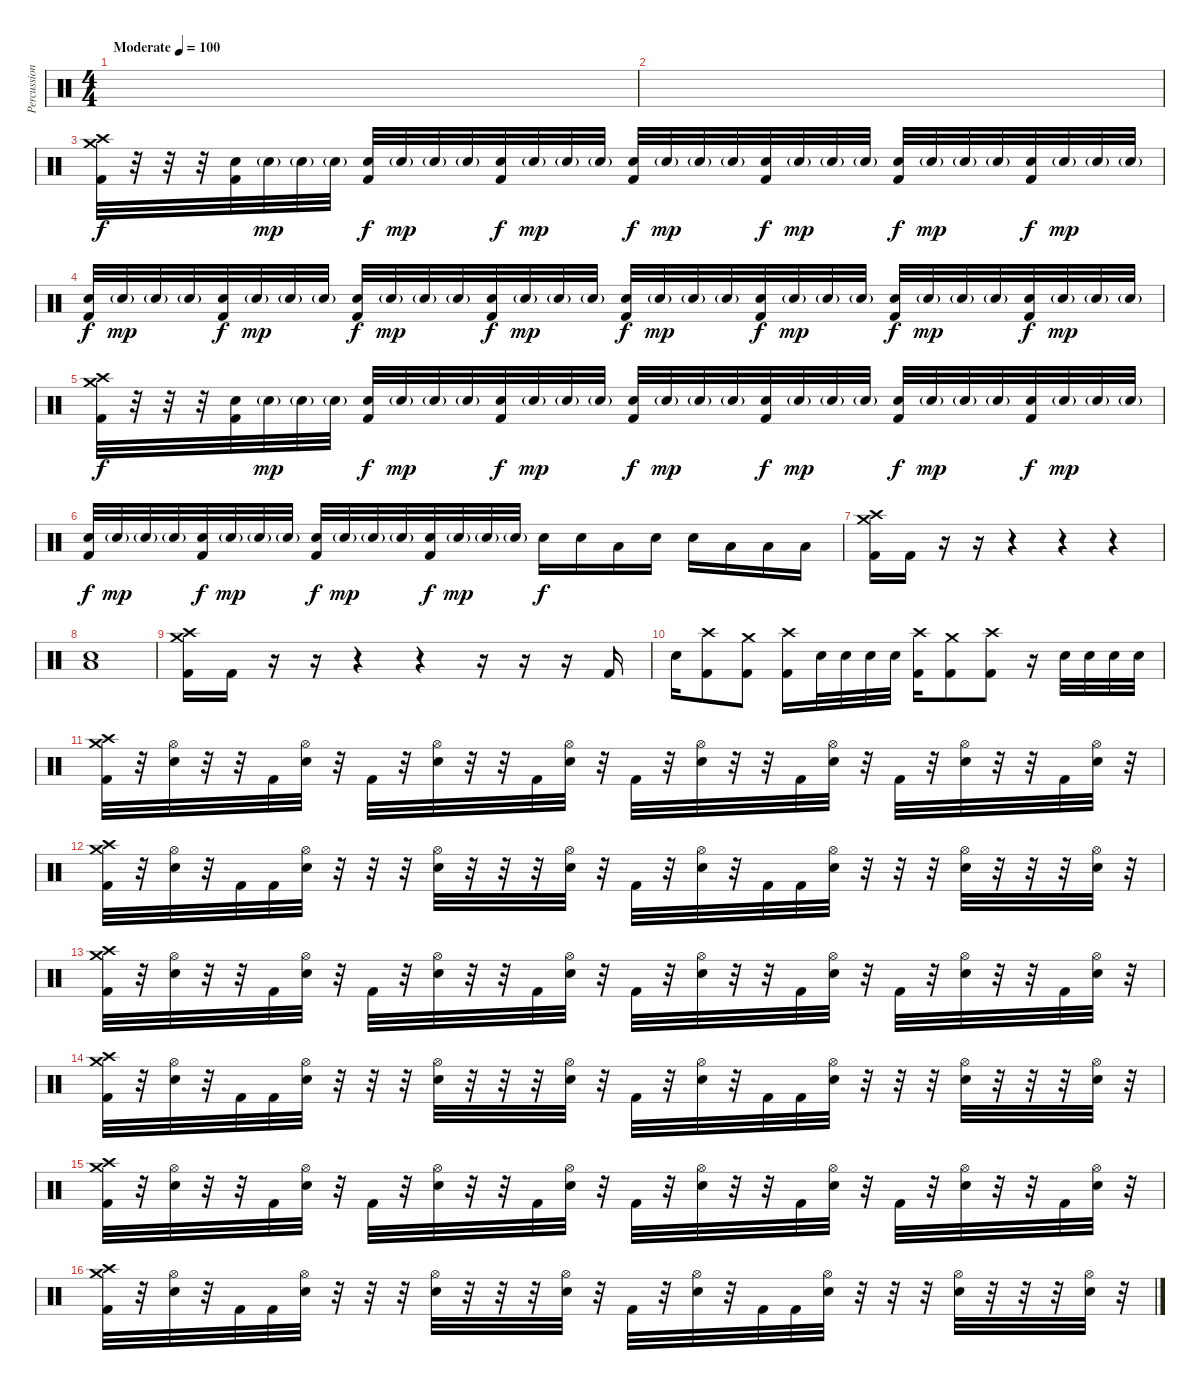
\track ("Percussion" "Percussion") {instrument percussion}
\staff {score}
\articulation defaults
\ts (4 4)
\tempo (100 "Moderate")
\clef neutral
\ks c
|
|
("Crash medium (hit)" "Crash high (hit)" "Kick (hit) 2").32 r.32 r.32 r.32 ("Electric Snare (hit)" "Kick (hit) 2").32 "Electric Snare (hit)"{g}.32{dy mp} "Electric Snare (hit)"{g}.32 "Electric Snare (hit)"{g}.32 ("Electric Snare (hit)" "Kick (hit) 2").32{dy f} "Electric Snare (hit)"{g}.32{dy mp} "Electric Snare (hit)"{g}.32 "Electric Snare (hit)"{g}.32 ("Electric Snare (hit)" "Kick (hit) 2").32{dy f} "Electric Snare (hit)"{g}.32{dy mp} "Electric Snare (hit)"{g}.32 "Electric Snare (hit)"{g}.32 ("Electric Snare (hit)" "Kick (hit) 2").32{dy f} "Electric Snare (hit)"{g}.32{dy mp} "Electric Snare (hit)"{g}.32 "Electric Snare (hit)"{g}.32 ("Electric Snare (hit)" "Kick (hit) 2").32{dy f} "Electric Snare (hit)"{g}.32{dy mp} "Electric Snare (hit)"{g}.32 "Electric Snare (hit)"{g}.32 ("Electric Snare (hit)" "Kick (hit) 2").32{dy f} "Electric Snare (hit)"{g}.32{dy mp} "Electric Snare (hit)"{g}.32 "Electric Snare (hit)"{g}.32 ("Electric Snare (hit)" "Kick (hit) 2").32{dy f} "Electric Snare (hit)"{g}.32{dy mp} "Electric Snare (hit)"{g}.32 "Electric Snare (hit)"{g}.32 |
("Electric Snare (hit)" "Kick (hit) 2").32{dy f} "Electric Snare (hit)"{g}.32{dy mp} "Electric Snare (hit)"{g}.32 "Electric Snare (hit)"{g}.32 ("Electric Snare (hit)" "Kick (hit) 2").32{dy f} "Electric Snare (hit)"{g}.32{dy mp} "Electric Snare (hit)"{g}.32 "Electric Snare (hit)"{g}.32 ("Electric Snare (hit)" "Kick (hit) 2").32{dy f} "Electric Snare (hit)"{g}.32{dy mp} "Electric Snare (hit)"{g}.32 "Electric Snare (hit)"{g}.32 ("Electric Snare (hit)" "Kick (hit) 2").32{dy f} "Electric Snare (hit)"{g}.32{dy mp} "Electric Snare (hit)"{g}.32 "Electric Snare (hit)"{g}.32 ("Electric Snare (hit)" "Kick (hit) 2").32{dy f} "Electric Snare (hit)"{g}.32{dy mp} "Electric Snare (hit)"{g}.32 "Electric Snare (hit)"{g}.32 ("Electric Snare (hit)" "Kick (hit) 2").32{dy f} "Electric Snare (hit)"{g}.32{dy mp} "Electric Snare (hit)"{g}.32 "Electric Snare (hit)"{g}.32 ("Electric Snare (hit)" "Kick (hit) 2").32{dy f} "Electric Snare (hit)"{g}.32{dy mp} "Electric Snare (hit)"{g}.32 "Electric Snare (hit)"{g}.32 ("Electric Snare (hit)" "Kick (hit) 2").32{dy f} "Electric Snare (hit)"{g}.32{dy mp} "Electric Snare (hit)"{g}.32 "Electric Snare (hit)"{g}.32 |
("Crash medium (hit)" "Crash high (hit)" "Kick (hit) 2").32{dy f} r.32 r.32 r.32 ("Electric Snare (hit)" "Kick (hit) 2").32 "Electric Snare (hit)"{g}.32{dy mp} "Electric Snare (hit)"{g}.32 "Electric Snare (hit)"{g}.32 ("Electric Snare (hit)" "Kick (hit) 2").32{dy f} "Electric Snare (hit)"{g}.32{dy mp} "Electric Snare (hit)"{g}.32 "Electric Snare (hit)"{g}.32 ("Electric Snare (hit)" "Kick (hit) 2").32{dy f} "Electric Snare (hit)"{g}.32{dy mp} "Electric Snare (hit)"{g}.32 "Electric Snare (hit)"{g}.32 ("Electric Snare (hit)" "Kick (hit) 2").32{dy f} "Electric Snare (hit)"{g}.32{dy mp} "Electric Snare (hit)"{g}.32 "Electric Snare (hit)"{g}.32 ("Electric Snare (hit)" "Kick (hit) 2").32{dy f} "Electric Snare (hit)"{g}.32{dy mp} "Electric Snare (hit)"{g}.32 "Electric Snare (hit)"{g}.32 ("Electric Snare (hit)" "Kick (hit) 2").32{dy f} "Electric Snare (hit)"{g}.32{dy mp} "Electric Snare (hit)"{g}.32 "Electric Snare (hit)"{g}.32 ("Electric Snare (hit)" "Kick (hit) 2").32{dy f} "Electric Snare (hit)"{g}.32{dy mp} "Electric Snare (hit)"{g}.32 "Electric Snare (hit)"{g}.32 |
("Electric Snare (hit)" "Kick (hit) 2").32{dy f} "Electric Snare (hit)"{g}.32{dy mp} "Electric Snare (hit)"{g}.32 "Electric Snare (hit)"{g}.32 ("Electric Snare (hit)" "Kick (hit) 2").32{dy f} "Electric Snare (hit)"{g}.32{dy mp} "Electric Snare (hit)"{g}.32 "Electric Snare (hit)"{g}.32 ("Electric Snare (hit)" "Kick (hit) 2").32{dy f} "Electric Snare (hit)"{g}.32{dy mp} "Electric Snare (hit)"{g}.32 "Electric Snare (hit)"{g}.32 ("Electric Snare (hit)" "Kick (hit) 2").32{dy f} "Electric Snare (hit)"{g}.32{dy mp} "Electric Snare (hit)"{g}.32 "Electric Snare (hit)"{g}.32 "Electric Snare (hit)".16{dy f} "Electric Snare (hit)".16 "Low Tom (hit)".16 "Electric Snare (hit)".16 "Electric Snare (hit)".16 "Low Tom (hit)".16 "Low Floor Tom (hit)".16 "Low Floor Tom (hit)".16 |
("Crash medium (hit)" "Crash high (hit)" "Kick (hit) 2").16 "Kick (hit) 2".16 r.16 r.16 r.4 r.4 r.4 |
("Low Floor Tom (hit)" "Electric Snare (hit)").1 |
("Crash medium (hit)" "Crash high (hit)" "Kick (hit) 2").16 "Kick (hit) 2".16 r.16 r.16 r.4 r.4 r.16 r.16 r.16 "Kick (hit) 2".16 |
"Electric Snare (hit)".16 ("Crash high (hit)" "Kick (hit) 2").8 ("Crash medium (hit)" "Kick (hit) 2").8 ("Crash high (hit)" "Kick (hit) 2").16 "Electric Snare (hit)".32 "Electric Snare (hit)".32 "Electric Snare (hit)".32 "Electric Snare (hit)".32 ("Crash high (hit)" "Kick (hit) 2").16 ("Crash medium (hit)" "Kick (hit) 2").8 ("Crash high (hit)" "Kick (hit) 2").8 r.16 "Electric Snare (hit)".32 "Electric Snare (hit)".32 "Electric Snare (hit)".32 "Electric Snare (hit)".32 |
("Crash medium (hit)" "Crash high (hit)" "Kick (hit) 2").32 r.32 ("Hi-Hat (open)" "Electric Snare (hit)").32 r.32 r.32 "Kick (hit) 2".32 ("Hi-Hat (open)" "Electric Snare (hit)").32 r.32 "Kick (hit) 2".32 r.32 ("Hi-Hat (open)" "Electric Snare (hit)").32 r.32 r.32 "Kick (hit) 2".32 ("Hi-Hat (open)" "Electric Snare (hit)").32 r.32 "Kick (hit) 2".32 r.32 ("Hi-Hat (open)" "Electric Snare (hit)").32 r.32 r.32 "Kick (hit) 2".32 ("Hi-Hat (open)" "Electric Snare (hit)").32 r.32 "Kick (hit) 2".32 r.32 ("Hi-Hat (open)" "Electric Snare (hit)").32 r.32 r.32 "Kick (hit) 2".32 ("Hi-Hat (open)" "Electric Snare (hit)").32 r.32 |
("Crash medium (hit)" "Crash high (hit)" "Kick (hit) 2").32 r.32 ("Hi-Hat (open)" "Electric Snare (hit)").32 r.32 "Kick (hit) 2".32 "Kick (hit) 2".32 ("Hi-Hat (open)" "Electric Snare (hit)").32 r.32 r.32 r.32 ("Hi-Hat (open)" "Electric Snare (hit)").32 r.32 r.32 r.32 ("Hi-Hat (open)" "Electric Snare (hit)").32 r.32 "Kick (hit) 2".32 r.32 ("Hi-Hat (open)" "Electric Snare (hit)").32 r.32 "Kick (hit) 2".32 "Kick (hit) 2".32 ("Hi-Hat (open)" "Electric Snare (hit)").32 r.32 r.32 r.32 ("Hi-Hat (open)" "Electric Snare (hit)").32 r.32 r.32 r.32 ("Hi-Hat (open)" "Electric Snare (hit)").32 r.32 |
("Crash medium (hit)" "Crash high (hit)" "Kick (hit) 2").32 r.32 ("Hi-Hat (open)" "Electric Snare (hit)").32 r.32 r.32 "Kick (hit) 2".32 ("Hi-Hat (open)" "Electric Snare (hit)").32 r.32 "Kick (hit) 2".32 r.32 ("Hi-Hat (open)" "Electric Snare (hit)").32 r.32 r.32 "Kick (hit) 2".32 ("Hi-Hat (open)" "Electric Snare (hit)").32 r.32 "Kick (hit) 2".32 r.32 ("Hi-Hat (open)" "Electric Snare (hit)").32 r.32 r.32 "Kick (hit) 2".32 ("Hi-Hat (open)" "Electric Snare (hit)").32 r.32 "Kick (hit) 2".32 r.32 ("Hi-Hat (open)" "Electric Snare (hit)").32 r.32 r.32 "Kick (hit) 2".32 ("Hi-Hat (open)" "Electric Snare (hit)").32 r.32 |
("Crash medium (hit)" "Crash high (hit)" "Kick (hit) 2").32 r.32 ("Hi-Hat (open)" "Electric Snare (hit)").32 r.32 "Kick (hit) 2".32 "Kick (hit) 2".32 ("Hi-Hat (open)" "Electric Snare (hit)").32 r.32 r.32 r.32 ("Hi-Hat (open)" "Electric Snare (hit)").32 r.32 r.32 r.32 ("Hi-Hat (open)" "Electric Snare (hit)").32 r.32 "Kick (hit) 2".32 r.32 ("Hi-Hat (open)" "Electric Snare (hit)").32 r.32 "Kick (hit) 2".32 "Kick (hit) 2".32 ("Hi-Hat (open)" "Electric Snare (hit)").32 r.32 r.32 r.32 ("Hi-Hat (open)" "Electric Snare (hit)").32 r.32 r.32 r.32 ("Hi-Hat (open)" "Electric Snare (hit)").32 r.32 |
("Crash medium (hit)" "Crash high (hit)" "Kick (hit) 2").32 r.32 ("Hi-Hat (open)" "Electric Snare (hit)").32 r.32 r.32 "Kick (hit) 2".32 ("Hi-Hat (open)" "Electric Snare (hit)").32 r.32 "Kick (hit) 2".32 r.32 ("Hi-Hat (open)" "Electric Snare (hit)").32 r.32 r.32 "Kick (hit) 2".32 ("Hi-Hat (open)" "Electric Snare (hit)").32 r.32 "Kick (hit) 2".32 r.32 ("Hi-Hat (open)" "Electric Snare (hit)").32 r.32 r.32 "Kick (hit) 2".32 ("Hi-Hat (open)" "Electric Snare (hit)").32 r.32 "Kick (hit) 2".32 r.32 ("Hi-Hat (open)" "Electric Snare (hit)").32 r.32 r.32 "Kick (hit) 2".32 ("Hi-Hat (open)" "Electric Snare (hit)").32 r.32 |
("Crash medium (hit)" "Crash high (hit)" "Kick (hit) 2").32 r.32 ("Hi-Hat (open)" "Electric Snare (hit)").32 r.32 "Kick (hit) 2".32 "Kick (hit) 2".32 ("Hi-Hat (open)" "Electric Snare (hit)").32 r.32 r.32 r.32 ("Hi-Hat (open)" "Electric Snare (hit)").32 r.32 r.32 r.32 ("Hi-Hat (open)" "Electric Snare (hit)").32 r.32 "Kick (hit) 2".32 r.32 ("Hi-Hat (open)" "Electric Snare (hit)").32 r.32 "Kick (hit) 2".32 "Kick (hit) 2".32 ("Hi-Hat (open)" "Electric Snare (hit)").32 r.32 r.32 r.32 ("Hi-Hat (open)" "Electric Snare (hit)").32 r.32 r.32 r.32 ("Hi-Hat (open)" "Electric Snare (hit)").32 r.32
